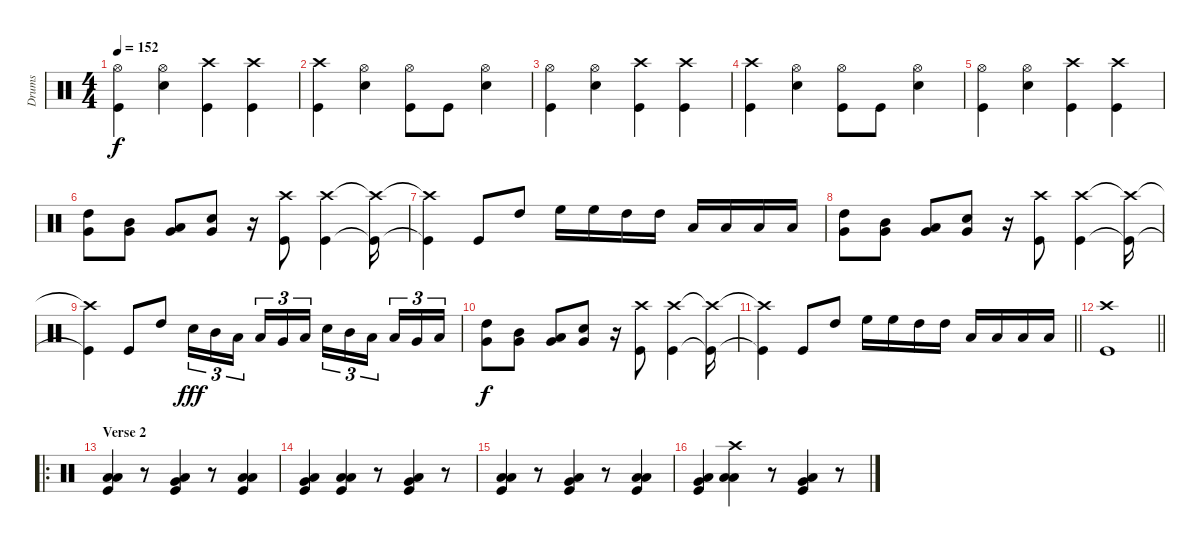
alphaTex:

\track ("Drums" "Drums") {instrument percussion}
\staff {score}
\articulation defaults
\ts (4 4)
\tempo 152
\clef neutral
\ks c
("Kick (hit)" "Hi-Hat (open)").4{dy f} ("Hi-Hat (open)" "Snare (hit) 2").4 ("Kick (hit)" "Crash high (hit)").4 ("Kick (hit)" "Crash high (hit)").4 |
("Kick (hit)" "Crash high (hit)").4 ("Hi-Hat (open)" "Snare (hit) 2").4 ("Hi-Hat (open)" "Kick (hit)").8 "Kick (hit)".8 ("Hi-Hat (open)" "Snare (hit) 2").4 |
("Kick (hit)" "Hi-Hat (open)").4 ("Hi-Hat (open)" "Snare (hit) 2").4 ("Kick (hit)" "Crash high (hit)").4 ("Kick (hit)" "Crash high (hit)").4 |
("Kick (hit)" "Crash high (hit)").4 ("Hi-Hat (open)" "Snare (hit) 2").4 ("Hi-Hat (open)" "Kick (hit)").8 "Kick (hit)".8 ("Hi-Hat (open)" "Snare (hit) 2").4 |
("Kick (hit)" "Hi-Hat (open)").4 ("Hi-Hat (open)" "Snare (hit) 2").4 ("Kick (hit)" "Crash high (hit)").4 ("Kick (hit)" "Crash high (hit)").4 |
("Very Low Tom (hit)" "High Tom (hit)").8 ("Very Low Tom (hit)" "Mid Tom (hit)").8 ("Very Low Tom (hit)" "Low Tom (hit)").8 ("Very Low Tom (hit)" "Snare (hit) 2").8 r.16 ("Kick (hit)" "Crash high (hit)").8 ("Kick (hit)" "Crash high (hit)").4 ("Kick (hit)"{t} "Crash high (hit)"{t}).16 |
("Kick (hit)"{t} "Crash high (hit)"{t}).4 "Kick (hit)".8 "High Tom (hit)".8 "High Floor Tom (hit)".16 "High Floor Tom (hit)".16 "High Tom (hit)".16 "High Tom (hit)".16 "Low Tom (hit)".16 "Low Tom (hit)".16 "Low Tom (hit)".16 "Low Tom (hit)".16 |
("Very Low Tom (hit)" "High Tom (hit)").8 ("Very Low Tom (hit)" "Mid Tom (hit)").8 ("Very Low Tom (hit)" "Low Tom (hit)").8 ("Very Low Tom (hit)" "Snare (hit) 2").8 r.16 ("Kick (hit)" "Crash high (hit)").8 ("Kick (hit)" "Crash high (hit)").4 ("Kick (hit)"{t} "Crash high (hit)"{t}).16 |
("Kick (hit)"{t} "Crash high (hit)"{t}).4 "Kick (hit)".8 "High Tom (hit)".8 "Snare (hit) 2".16{tu (3 2) dy fff} "Mid Tom (hit)".16{tu (3 2)} "Low Tom (hit)".16{tu (3 2) beam splitsecondary} "Low Tom (hit)".16{tu (3 2)} "Very Low Tom (hit)".16{tu (3 2)} "Low Floor Tom (hit)".16{tu (3 2)} "Snare (hit) 2".16{tu (3 2)} "Mid Tom (hit)".16{tu (3 2)} "Low Tom (hit)".16{tu (3 2) beam splitsecondary} "Low Tom (hit)".16{tu (3 2)} "Very Low Tom (hit)".16{tu (3 2)} "Low Floor Tom (hit)".16{tu (3 2)} |
("Very Low Tom (hit)" "High Tom (hit)").8{dy f} ("Very Low Tom (hit)" "Mid Tom (hit)").8 ("Very Low Tom (hit)" "Low Tom (hit)").8 ("Very Low Tom (hit)" "Snare (hit) 2").8 r.16 ("Kick (hit)" "Crash high (hit)").8 ("Kick (hit)" "Crash high (hit)").4 ("Kick (hit)"{t} "Crash high (hit)"{t}).16 |
\barLineRight lightlight
("Kick (hit)"{t} "Crash high (hit)"{t}).4 "Kick (hit)".8 "High Tom (hit)".8 "High Floor Tom (hit)".16 "High Floor Tom (hit)".16 "High Tom (hit)".16 "High Tom (hit)".16 "Low Tom (hit)".16 "Low Tom (hit)".16 "Low Tom (hit)".16 "Low Tom (hit)".16 |
\barLineRight lightlight
("Kick (hit)" "Crash high (hit)").1 |
\ro
\section ("" "Verse 2")
("Low Tom (hit)" "Kick (hit)" "Low Floor Tom (hit)").4 r.8 ("Kick (hit)" "Very Low Tom (hit)" "Low Floor Tom (hit)").4 r.8 ("Low Tom (hit)" "Kick (hit)" "Low Floor Tom (hit)").4 |
("Kick (hit)" "Very Low Tom (hit)" "Low Floor Tom (hit)").4 ("Low Tom (hit)" "Kick (hit)" "Low Floor Tom (hit)").4 r.8 ("Kick (hit)" "Very Low Tom (hit)" "Low Floor Tom (hit)").4 r.8 |
("Low Tom (hit)" "Kick (hit)" "Low Floor Tom (hit)").4 r.8 ("Kick (hit)" "Very Low Tom (hit)" "Low Floor Tom (hit)").4 r.8 ("Low Tom (hit)" "Kick (hit)" "Low Floor Tom (hit)").4 |
("Kick (hit)" "Very Low Tom (hit)" "Low Floor Tom (hit)").4 ("Low Tom (hit)" "Low Floor Tom (hit)" "Crash high (hit)").4 r.8 ("Kick (hit)" "Very Low Tom (hit)" "Low Floor Tom (hit)").4 r.8
